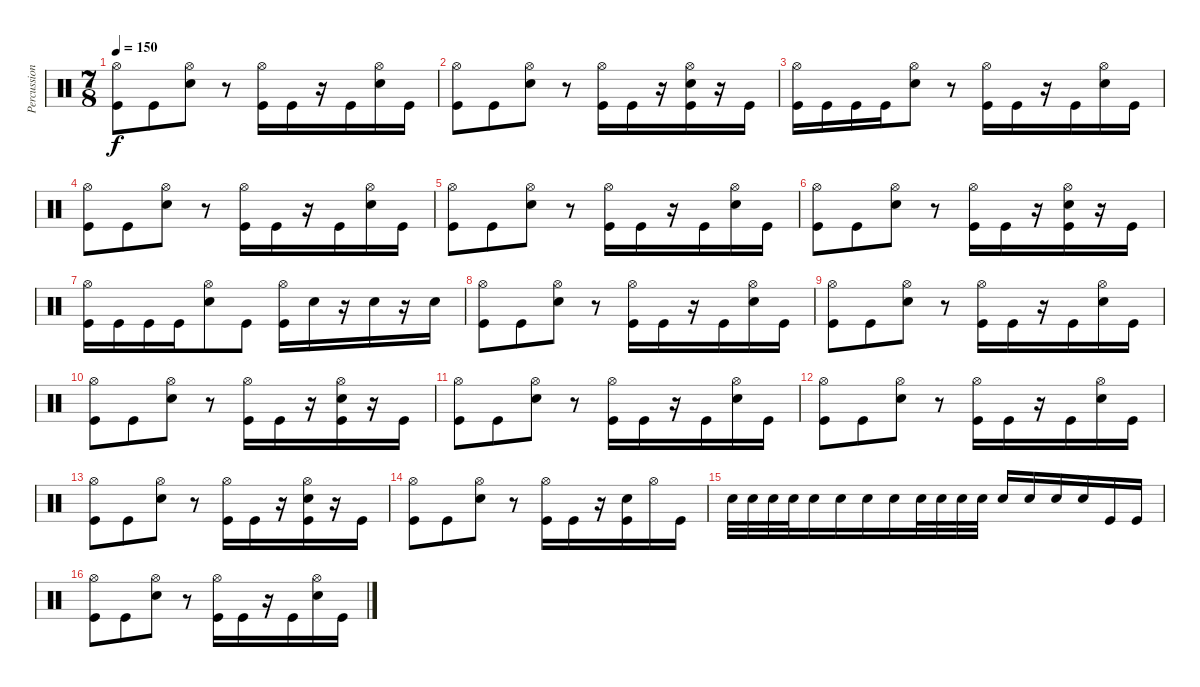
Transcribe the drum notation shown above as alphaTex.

\track ("Percussion" "Percussion") {instrument percussion}
\staff {score}
\articulation defaults
\ts (7 8)
\tempo 150
\clef neutral
\ks c
("Hi-Hat (open)" "Kick (hit)").8{dy f} "Kick (hit)".8 ("Hi-Hat (open)" "Snare (hit) 2").8 r.8 ("Hi-Hat (open)" "Kick (hit)").16 "Kick (hit)".16 r.16 "Kick (hit)".16 ("Hi-Hat (open)" "Snare (hit) 2").16 "Kick (hit)".16 |
("Hi-Hat (open)" "Kick (hit)").8 "Kick (hit)".8 ("Hi-Hat (open)" "Snare (hit) 2").8 r.8 ("Hi-Hat (open)" "Kick (hit)").16 "Kick (hit)".16 r.16 ("Hi-Hat (open)" "Snare (hit) 2" "Kick (hit)").16 r.16 "Kick (hit)".16 |
("Hi-Hat (open)" "Kick (hit)").16 "Kick (hit)".16 "Kick (hit)".16 "Kick (hit)".16 ("Hi-Hat (open)" "Snare (hit) 2").8 r.8 ("Hi-Hat (open)" "Kick (hit)").16 "Kick (hit)".16 r.16 "Kick (hit)".16 ("Hi-Hat (open)" "Snare (hit) 2").16 "Kick (hit)".16 |
("Hi-Hat (open)" "Kick (hit)").8 "Kick (hit)".8 ("Hi-Hat (open)" "Snare (hit) 2").8 r.8 ("Hi-Hat (open)" "Kick (hit)").16 "Kick (hit)".16 r.16 "Kick (hit)".16 ("Hi-Hat (open)" "Snare (hit) 2").16 "Kick (hit)".16 |
("Hi-Hat (open)" "Kick (hit)").8 "Kick (hit)".8 ("Hi-Hat (open)" "Snare (hit) 2").8 r.8 ("Hi-Hat (open)" "Kick (hit)").16 "Kick (hit)".16 r.16 "Kick (hit)".16 ("Hi-Hat (open)" "Snare (hit) 2").16 "Kick (hit)".16 |
("Hi-Hat (open)" "Kick (hit)").8 "Kick (hit)".8 ("Hi-Hat (open)" "Snare (hit) 2").8 r.8 ("Hi-Hat (open)" "Kick (hit)").16 "Kick (hit)".16 r.16 ("Hi-Hat (open)" "Snare (hit) 2" "Kick (hit)").16 r.16 "Kick (hit)".16 |
("Hi-Hat (open)" "Kick (hit)").16 "Kick (hit)".16 "Kick (hit)".16 "Kick (hit)".16 ("Hi-Hat (open)" "Snare (hit) 2").8 "Kick (hit)".8 ("Hi-Hat (open)" "Kick (hit)").16 "Snare (hit) 2".16 r.16 "Snare (hit) 2".16 r.16 "Snare (hit) 2".16 |
("Hi-Hat (open)" "Kick (hit)").8 "Kick (hit)".8 ("Hi-Hat (open)" "Snare (hit) 2").8 r.8 ("Hi-Hat (open)" "Kick (hit)").16 "Kick (hit)".16 r.16 "Kick (hit)".16 ("Hi-Hat (open)" "Snare (hit) 2").16 "Kick (hit)".16 |
("Hi-Hat (open)" "Kick (hit)").8 "Kick (hit)".8 ("Hi-Hat (open)" "Snare (hit) 2").8 r.8 ("Hi-Hat (open)" "Kick (hit)").16 "Kick (hit)".16 r.16 "Kick (hit)".16 ("Hi-Hat (open)" "Snare (hit) 2").16 "Kick (hit)".16 |
("Hi-Hat (open)" "Kick (hit)").8 "Kick (hit)".8 ("Hi-Hat (open)" "Snare (hit) 2").8 r.8 ("Hi-Hat (open)" "Kick (hit)").16 "Kick (hit)".16 r.16 ("Hi-Hat (open)" "Snare (hit) 2" "Kick (hit)").16 r.16 "Kick (hit)".16 |
("Hi-Hat (open)" "Kick (hit)").8 "Kick (hit)".8 ("Hi-Hat (open)" "Snare (hit) 2").8 r.8 ("Hi-Hat (open)" "Kick (hit)").16 "Kick (hit)".16 r.16 "Kick (hit)".16 ("Hi-Hat (open)" "Snare (hit) 2").16 "Kick (hit)".16 |
("Hi-Hat (open)" "Kick (hit)").8 "Kick (hit)".8 ("Hi-Hat (open)" "Snare (hit) 2").8 r.8 ("Hi-Hat (open)" "Kick (hit)").16 "Kick (hit)".16 r.16 "Kick (hit)".16 ("Hi-Hat (open)" "Snare (hit) 2").16 "Kick (hit)".16 |
("Hi-Hat (open)" "Kick (hit)").8 "Kick (hit)".8 ("Hi-Hat (open)" "Snare (hit) 2").8 r.8 ("Hi-Hat (open)" "Kick (hit)").16 "Kick (hit)".16 r.16 ("Hi-Hat (open)" "Snare (hit) 2" "Kick (hit)").16 r.16 "Kick (hit)".16 |
("Hi-Hat (open)" "Kick (hit)").8 "Kick (hit)".8 ("Hi-Hat (open)" "Snare (hit) 2").8 r.8 ("Hi-Hat (open)" "Kick (hit)").16 "Kick (hit)".16 r.16 ("Snare (hit) 2" "Kick (hit)").16 "Hi-Hat (open)".16 "Kick (hit)".16 |
"Snare (hit) 2".32 "Snare (hit) 2".32 "Snare (hit) 2".32 "Snare (hit) 2".32 "Snare (hit) 2".16 "Snare (hit) 2".16 "Snare (hit) 2".16 "Snare (hit) 2".16 "Snare (hit) 2".32 "Snare (hit) 2".32 "Snare (hit) 2".32 "Snare (hit) 2".32 "Snare (hit) 2".16 "Snare (hit) 2".16 "Snare (hit) 2".16 "Snare (hit) 2".16 "Kick (hit)".16 "Kick (hit)".16 |
("Hi-Hat (open)" "Kick (hit)").8 "Kick (hit)".8 ("Hi-Hat (open)" "Snare (hit) 2").8 r.8 ("Hi-Hat (open)" "Kick (hit)").16 "Kick (hit)".16 r.16 "Kick (hit)".16 ("Hi-Hat (open)" "Snare (hit) 2").16 "Kick (hit)".16
